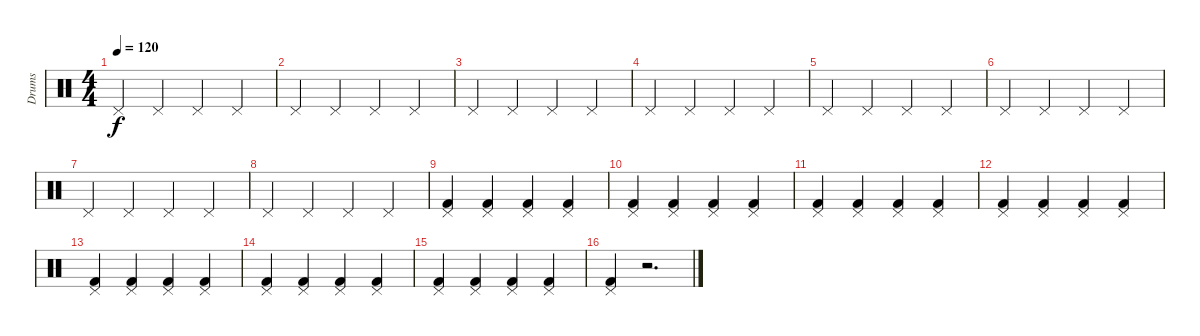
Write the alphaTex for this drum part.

\track ("Drums" "Drums") {instrument percussion}
\staff {score}
\articulation defaults
\ts (4 4)
\tempo 120
\clef neutral
\ks c "Pedal Hi-Hat (hit)".4{dy f} "Pedal Hi-Hat (hit)".4 "Pedal Hi-Hat (hit)".4 "Pedal Hi-Hat (hit)".4
|
"Pedal Hi-Hat (hit)".4 "Pedal Hi-Hat (hit)".4 "Pedal Hi-Hat (hit)".4 "Pedal Hi-Hat (hit)".4 |
"Pedal Hi-Hat (hit)".4 "Pedal Hi-Hat (hit)".4 "Pedal Hi-Hat (hit)".4 "Pedal Hi-Hat (hit)".4 |
"Pedal Hi-Hat (hit)".4 "Pedal Hi-Hat (hit)".4 "Pedal Hi-Hat (hit)".4 "Pedal Hi-Hat (hit)".4 |
"Pedal Hi-Hat (hit)".4 "Pedal Hi-Hat (hit)".4 "Pedal Hi-Hat (hit)".4 "Pedal Hi-Hat (hit)".4 |
"Pedal Hi-Hat (hit)".4 "Pedal Hi-Hat (hit)".4 "Pedal Hi-Hat (hit)".4 "Pedal Hi-Hat (hit)".4 |
"Pedal Hi-Hat (hit)".4 "Pedal Hi-Hat (hit)".4 "Pedal Hi-Hat (hit)".4 "Pedal Hi-Hat (hit)".4 |
"Pedal Hi-Hat (hit)".4 "Pedal Hi-Hat (hit)".4 "Pedal Hi-Hat (hit)".4 "Pedal Hi-Hat (hit)".4 |
("Pedal Hi-Hat (hit)" "Kick (hit) 2").4 ("Pedal Hi-Hat (hit)" "Kick (hit) 2").4 ("Pedal Hi-Hat (hit)" "Kick (hit) 2").4 ("Pedal Hi-Hat (hit)" "Kick (hit) 2").4 |
("Pedal Hi-Hat (hit)" "Kick (hit) 2").4 ("Pedal Hi-Hat (hit)" "Kick (hit) 2").4 ("Pedal Hi-Hat (hit)" "Kick (hit) 2").4 ("Pedal Hi-Hat (hit)" "Kick (hit) 2").4 |
("Pedal Hi-Hat (hit)" "Kick (hit) 2").4 ("Pedal Hi-Hat (hit)" "Kick (hit) 2").4 ("Pedal Hi-Hat (hit)" "Kick (hit) 2").4 ("Pedal Hi-Hat (hit)" "Kick (hit) 2").4 |
("Pedal Hi-Hat (hit)" "Kick (hit) 2").4 ("Pedal Hi-Hat (hit)" "Kick (hit) 2").4 ("Pedal Hi-Hat (hit)" "Kick (hit) 2").4 ("Pedal Hi-Hat (hit)" "Kick (hit) 2").4 |
("Pedal Hi-Hat (hit)" "Kick (hit) 2").4 ("Pedal Hi-Hat (hit)" "Kick (hit) 2").4 ("Pedal Hi-Hat (hit)" "Kick (hit) 2").4 ("Pedal Hi-Hat (hit)" "Kick (hit) 2").4 |
("Pedal Hi-Hat (hit)" "Kick (hit) 2").4 ("Pedal Hi-Hat (hit)" "Kick (hit) 2").4 ("Pedal Hi-Hat (hit)" "Kick (hit) 2").4 ("Pedal Hi-Hat (hit)" "Kick (hit) 2").4 |
("Pedal Hi-Hat (hit)" "Kick (hit) 2").4 ("Pedal Hi-Hat (hit)" "Kick (hit) 2").4 ("Pedal Hi-Hat (hit)" "Kick (hit) 2").4 ("Pedal Hi-Hat (hit)" "Kick (hit) 2").4 |
("Pedal Hi-Hat (hit)" "Kick (hit) 2").4 r.2{d}
